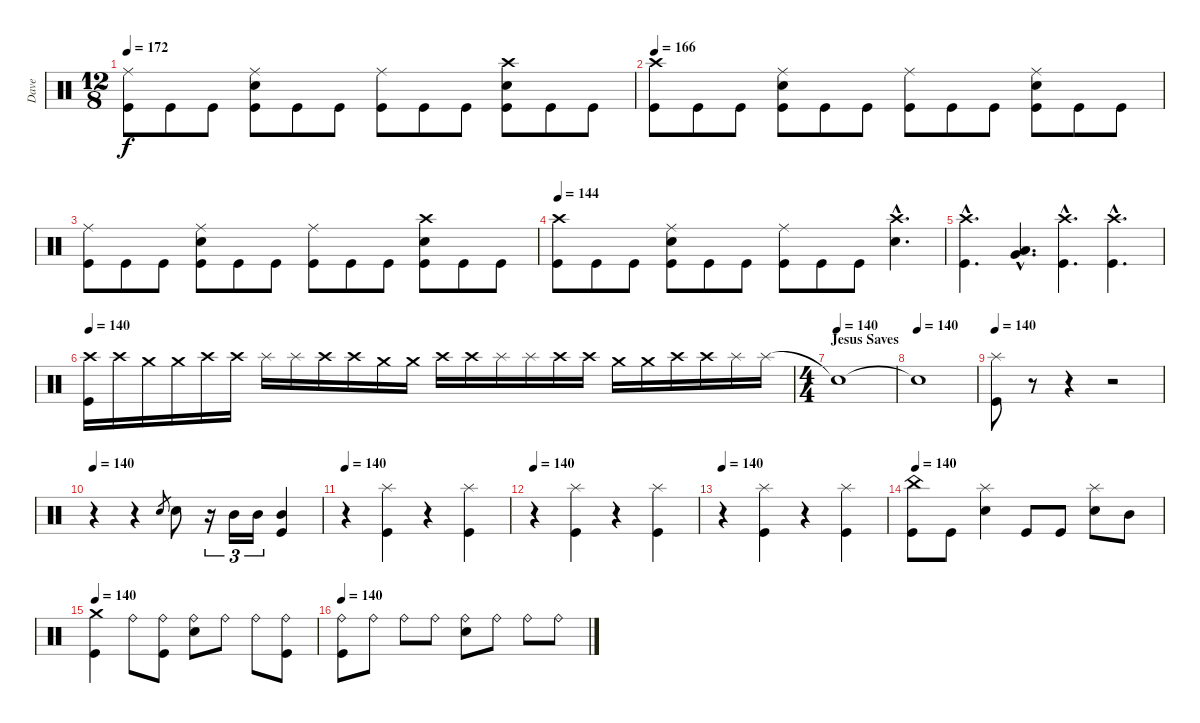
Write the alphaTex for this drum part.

\track ("Dave" "Dave") {instrument percussion}
\staff {score}
\articulation defaults
\ts (12 8)
\tempo 172
\clef neutral
\ks c
("Ride (middle)" "Kick (hit)").8{dy f} "Kick (hit)".8 "Kick (hit)".8 ("Ride (middle)" "Snare (hit) 2" "Kick (hit)").8 "Kick (hit)".8 "Kick (hit)".8 ("Ride (middle)" "Kick (hit)").8 "Kick (hit)".8 "Kick (hit)".8 ("Crash high (hit)" "Snare (hit) 2" "Kick (hit)").8 "Kick (hit)".8 "Kick (hit)".8 |
\tempo 166
("Crash high (hit)" "Kick (hit)").8 "Kick (hit)".8 "Kick (hit)".8 ("Ride (middle)" "Snare (hit) 2" "Kick (hit)").8 "Kick (hit)".8 "Kick (hit)".8 ("Ride (middle)" "Kick (hit)").8 "Kick (hit)".8 "Kick (hit)".8 ("Ride (middle)" "Snare (hit) 2" "Kick (hit)").8 "Kick (hit)".8 "Kick (hit)".8 |
("Ride (middle)" "Kick (hit)").8 "Kick (hit)".8 "Kick (hit)".8 ("Ride (middle)" "Snare (hit) 2" "Kick (hit)").8 "Kick (hit)".8 "Kick (hit)".8 ("Ride (middle)" "Kick (hit)").8 "Kick (hit)".8 "Kick (hit)".8 ("Crash high (hit)" "Snare (hit) 2" "Kick (hit)").8 "Kick (hit)".8 "Kick (hit)".8 |
\tempo 144
("Crash high (hit)" "Kick (hit)").8 "Kick (hit)".8 "Kick (hit)".8 ("Ride (middle)" "Snare (hit) 2" "Kick (hit)").8 "Kick (hit)".8 "Kick (hit)".8 ("Ride (middle)" "Kick (hit)").8 "Kick (hit)".8 "Kick (hit)".8 ("Crash high (hit)"{hac} "Snare (hit) 2"{hac}).4{d} |
("Crash high (hit)"{hac} "Kick (hit)"{hac}).4{d} ("Very Low Tom (hit)"{hac} "Low Tom (hit)"{hac}).4{d} ("Crash high (hit)"{hac} "Kick (hit)"{hac}).4{d} ("Crash high (hit)"{hac} "Kick (hit)"{hac}).4{d} |
\tempo 140
("Crash high (hit)" "Kick (hit)").16 "Crash high (hit)".16 "Crash medium (hit)".16 "Crash medium (hit)".16 "Crash high (hit)".16 "Crash high (hit)".16 "Splash (hit)".16 "Splash (hit)".16 "Crash high (hit)".16 "Crash high (hit)".16 "Crash medium (hit)".16 "Crash medium (hit)".16 "Crash high (hit)".16 "Crash high (hit)".16 "Splash (hit)".16 "Splash (hit)".16 "Crash high (hit)".16 "Crash high (hit)".16 "Crash medium (hit)".16 "Crash medium (hit)".16 "Crash high (hit)".16 "Crash high (hit)".16 "Splash (hit)".16 "Splash (hit)".16 |
\ts (4 4)
\section ("" "Jesus Saves")
\tempo (140)
"Snare (hit)"{t}.1 |
\tempo (140)
"Snare (hit)"{t}.1 |
\tempo 140
("Kick (hit)" "Splash (hit)").8 r.8 r.4 r.2 |
\tempo 140
r.4 r.4 "Electric Snare (hit)".8{gr} "Electric Snare (hit)".8 r.16{tu (3 2)} "Mid Tom (hit)".16{tu (3 2)} "Mid Tom (hit)".16{tu (3 2)} ("Kick (hit)" "Mid Tom (hit)").4 |
\tempo 140
r.4 ("Kick (hit)" "Splash (hit)").4 r.4 ("Kick (hit)" "Splash (hit)").4 |
\tempo 140
r.4 ("Kick (hit)" "Splash (hit)").4 r.4 ("Kick (hit)" "Splash (hit)").4 |
\tempo 140
r.4 ("Kick (hit)" "Splash (hit)").4 r.4 ("Kick (hit)" "Splash (hit)").4 |
\tempo 140
("Kick (hit)" "China (hit)").8 "Kick (hit)".8 ("Electric Snare (hit)" "Splash (hit)").4 "Kick (hit)".8 "Kick (hit)".8 ("Electric Snare (hit)" "Splash (hit)").8 "Mid Tom (hit)".8 |
\tempo 140
("Kick (hit)" "Crash medium (hit)").4 "Ride (bell)".8 ("Kick (hit)" "Ride (bell)").8 ("Electric Snare (hit)" "Ride (bell)").8 "Ride (bell)".8 "Ride (bell)".8 ("Kick (hit)" "Ride (bell)").8 |
\tempo 140
("Kick (hit)" "Ride (bell)").8 "Ride (bell)".8 "Ride (bell)".8 "Ride (bell)".8 ("Electric Snare (hit)" "Ride (bell)").8 "Ride (bell)".8 "Ride (bell)".8 "Ride (bell)".8
